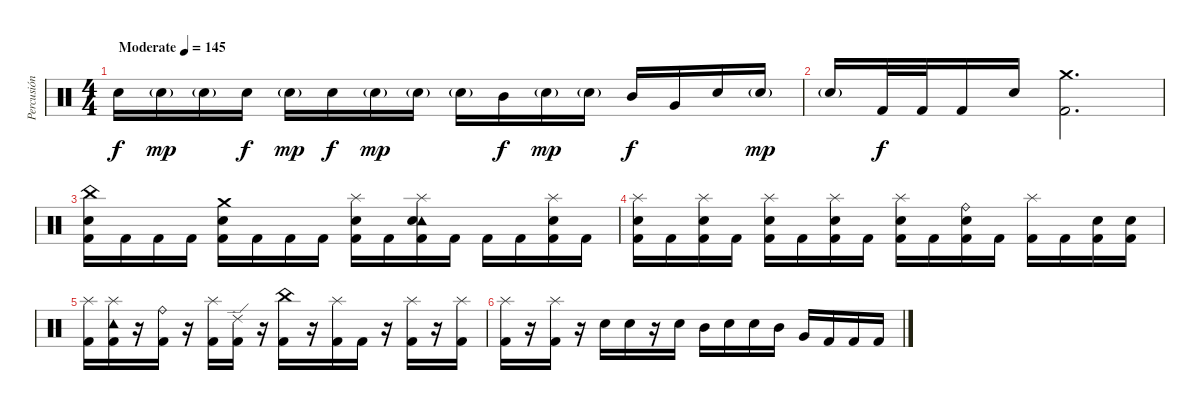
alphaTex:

\track ("Percusión" "Percusión") {instrument percussion}
\staff {score}
\articulation defaults
\ts (4 4)
\tempo (145 "Moderate")
\clef neutral
\ks c "Electric Snare (hit)".16{dy f} "Electric Snare (hit)"{g}.16{dy mp} "Electric Snare (hit)"{g}.16 "Electric Snare (hit)".16{dy f} "Electric Snare (hit)"{g}.16{dy mp} "Electric Snare (hit)".16{dy f} "Electric Snare (hit)"{g}.16{dy mp} "Electric Snare (hit)"{g}.16 "Electric Snare (hit)"{g}.16 "Mid Tom (hit)".16{dy f} "Electric Snare (hit)"{g}.16{dy mp} "Electric Snare (hit)"{g}.16 "Mid Tom (hit)".16{dy f} "Very Low Tom (hit)".16 "Electric Snare (hit)".16 "Electric Snare (hit)"{g}.16{dy mp}
|
"Electric Snare (hit)"{g}.16 "Kick (hit) 2".32{dy f} "Kick (hit) 2".32 "Kick (hit) 2".16 "Electric Snare (hit)".16 ("Crash medium (hit)" "Kick (hit) 2").2{d} |
("China (hit)" "Electric Snare (hit)" "Kick (hit) 2").16 "Kick (hit) 2".16 "Kick (hit) 2".16 "Kick (hit) 2".16 ("Crash medium (hit)" "Electric Snare (hit)" "Kick (hit) 2").16 "Kick (hit) 2".16 "Kick (hit) 2".16 "Kick (hit) 2".16 ("Splash (hit)" "Electric Snare (hit)" "Kick (hit) 2").16 "Kick (hit) 2".16 ("Splash (hit)" "Tambourine (hit)" "Electric Snare (hit)" "Kick (hit) 2").16 "Kick (hit) 2".16 "Kick (hit) 2".16 "Kick (hit) 2".16 ("Splash (hit)" "Electric Snare (hit)" "Kick (hit) 2").16 "Kick (hit) 2".16 |
("Splash (hit)" "Electric Snare (hit)" "Kick (hit) 2").16 "Kick (hit) 2".16 ("Splash (hit)" "Electric Snare (hit)" "Kick (hit) 2").16 "Kick (hit) 2".16 ("Splash (hit)" "Electric Snare (hit)" "Kick (hit) 2").16 "Kick (hit) 2".16 ("Splash (hit)" "Electric Snare (hit)" "Kick (hit) 2").16 "Kick (hit) 2".16 ("Splash (hit)" "Electric Snare (hit)" "Kick (hit) 2").16 "Kick (hit) 2".16 ("Ride (bell)" "Electric Snare (hit)" "Kick (hit) 2").16 "Kick (hit) 2".16 ("Splash (hit)" "Kick (hit) 2").16 "Kick (hit) 2".16 ("Electric Snare (hit)" "Kick (hit) 2").16 ("Electric Snare (hit)" "Kick (hit) 2").16 |
("Splash (hit)" "Kick (hit) 2").16 ("Splash (hit)" "Tambourine (hit)" "Kick (hit) 2").16 r.16 ("Ride (bell)" "Kick (hit) 2").16 r.16 ("Splash (hit)" "Kick (hit) 2").16 ("Ride (edge) 2" "Kick (hit) 2").16 r.16 ("China (hit)" "Kick (hit) 2").16 r.16 ("Splash (hit)" "Kick (hit) 2").16 "Kick (hit) 2".16 r.16 ("Splash (hit)" "Kick (hit) 2").16 r.16 ("Splash (hit)" "Kick (hit) 2").16 |
("Splash (hit)" "Kick (hit) 2").16 r.16 ("Splash (hit)" "Kick (hit) 2").16 r.16 "Electric Snare (hit)".16 "Electric Snare (hit)".16 r.16 "Electric Snare (hit)".16 "Mid Tom (hit)".16 "Electric Snare (hit)".16 "Electric Snare (hit)".16 "Mid Tom (hit)".16 "Very Low Tom (hit)".16 "Kick (hit) 2".16 "Kick (hit) 2".16 "Kick (hit) 2".16
